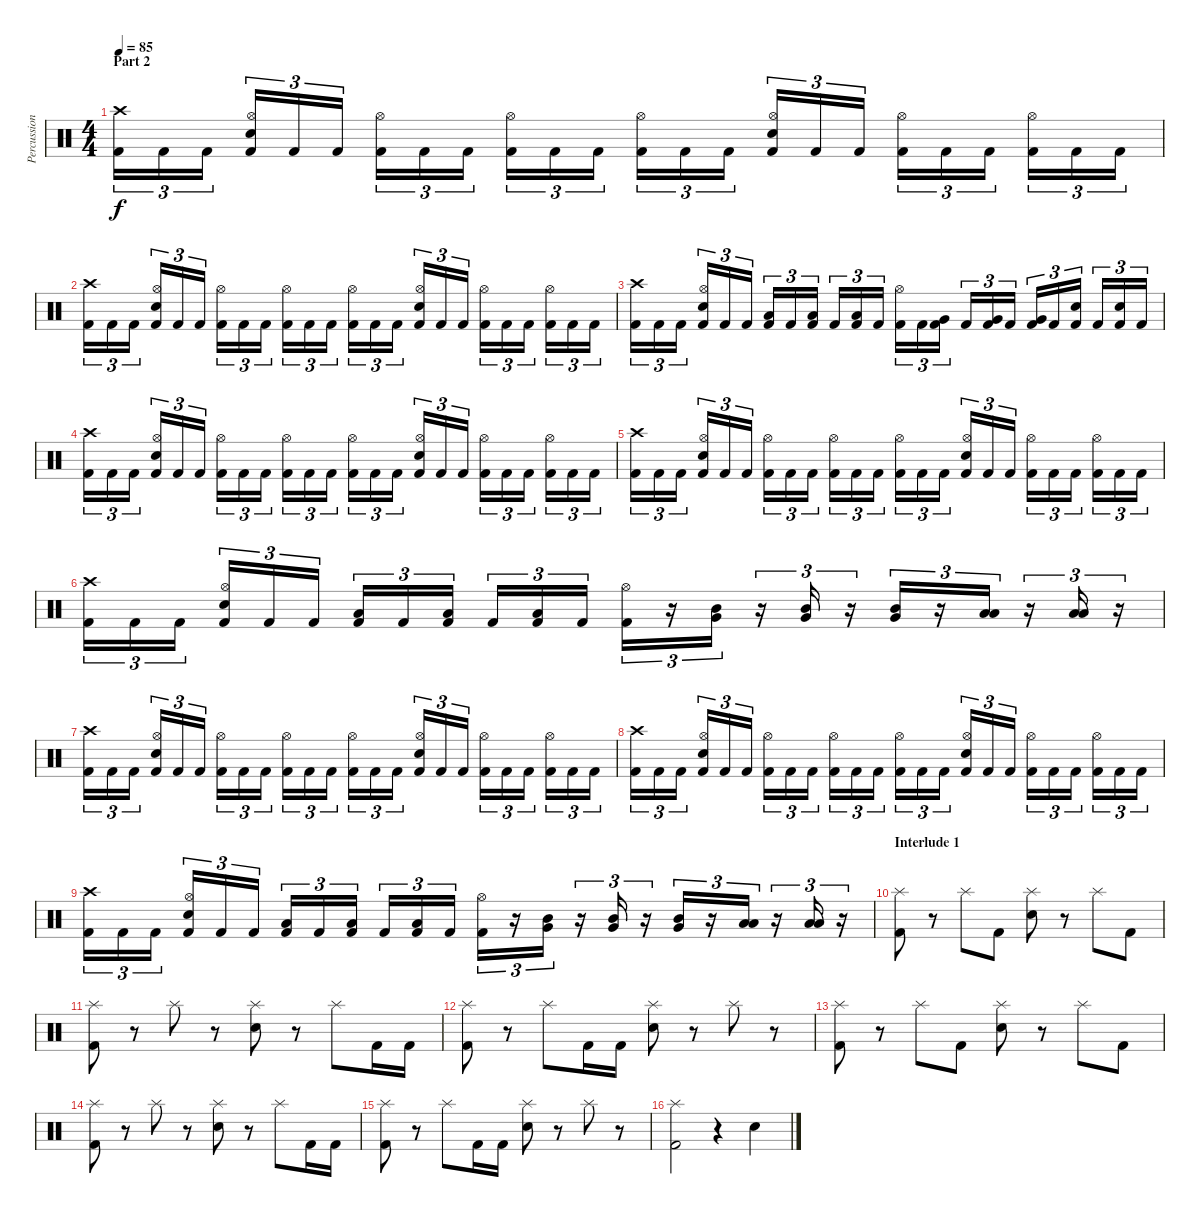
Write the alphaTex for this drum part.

\track ("Percussion" "Percussion") {instrument percussion}
\staff {score}
\articulation defaults
\ts (4 4)
\section ("" "Part 2")
\tempo 85
\clef neutral
\ks c
("Crash high (hit)" "Kick (hit) 2").16{tu (3 2) dy f} "Kick (hit) 2".16{tu (3 2)} "Kick (hit) 2".16{tu (3 2)} ("Hi-Hat (open)" "Electric Snare (hit)" "Kick (hit) 2").16{tu (3 2)} "Kick (hit) 2".16{tu (3 2)} "Kick (hit) 2".16{tu (3 2)} ("Hi-Hat (open)" "Kick (hit) 2").16{tu (3 2)} "Kick (hit) 2".16{tu (3 2)} "Kick (hit) 2".16{tu (3 2)} ("Hi-Hat (open)" "Kick (hit) 2").16{tu (3 2)} "Kick (hit) 2".16{tu (3 2)} "Kick (hit) 2".16{tu (3 2)} ("Hi-Hat (open)" "Kick (hit) 2").16{tu (3 2)} "Kick (hit) 2".16{tu (3 2)} "Kick (hit) 2".16{tu (3 2)} ("Hi-Hat (open)" "Electric Snare (hit)" "Kick (hit) 2").16{tu (3 2)} "Kick (hit) 2".16{tu (3 2)} "Kick (hit) 2".16{tu (3 2)} ("Hi-Hat (open)" "Kick (hit) 2").16{tu (3 2)} "Kick (hit) 2".16{tu (3 2)} "Kick (hit) 2".16{tu (3 2)} ("Hi-Hat (open)" "Kick (hit) 2").16{tu (3 2)} "Kick (hit) 2".16{tu (3 2)} "Kick (hit) 2".16{tu (3 2)} |
("Crash high (hit)" "Kick (hit) 2").16{tu (3 2)} "Kick (hit) 2".16{tu (3 2)} "Kick (hit) 2".16{tu (3 2)} ("Hi-Hat (open)" "Electric Snare (hit)" "Kick (hit) 2").16{tu (3 2)} "Kick (hit) 2".16{tu (3 2)} "Kick (hit) 2".16{tu (3 2)} ("Hi-Hat (open)" "Kick (hit) 2").16{tu (3 2)} "Kick (hit) 2".16{tu (3 2)} "Kick (hit) 2".16{tu (3 2)} ("Hi-Hat (open)" "Kick (hit) 2").16{tu (3 2)} "Kick (hit) 2".16{tu (3 2)} "Kick (hit) 2".16{tu (3 2)} ("Hi-Hat (open)" "Kick (hit) 2").16{tu (3 2)} "Kick (hit) 2".16{tu (3 2)} "Kick (hit) 2".16{tu (3 2)} ("Hi-Hat (open)" "Electric Snare (hit)" "Kick (hit) 2").16{tu (3 2)} "Kick (hit) 2".16{tu (3 2)} "Kick (hit) 2".16{tu (3 2)} ("Hi-Hat (open)" "Kick (hit) 2").16{tu (3 2)} "Kick (hit) 2".16{tu (3 2)} "Kick (hit) 2".16{tu (3 2)} ("Hi-Hat (open)" "Kick (hit) 2").16{tu (3 2)} "Kick (hit) 2".16{tu (3 2)} "Kick (hit) 2".16{tu (3 2)} |
("Crash high (hit)" "Kick (hit) 2").16{tu (3 2)} "Kick (hit) 2".16{tu (3 2)} "Kick (hit) 2".16{tu (3 2)} ("Hi-Hat (open)" "Electric Snare (hit)" "Kick (hit) 2").16{tu (3 2)} "Kick (hit) 2".16{tu (3 2)} "Kick (hit) 2".16{tu (3 2)} ("Low Tom (hit)" "Kick (hit) 2").16{tu (3 2)} "Kick (hit) 2".16{tu (3 2)} ("Low Tom (hit)" "Kick (hit) 2").16{tu (3 2)} "Kick (hit) 2".16{tu (3 2)} ("Low Tom (hit)" "Kick (hit) 2").16{tu (3 2)} "Kick (hit) 2".16{tu (3 2)} ("Hi-Hat (open)" "Kick (hit) 2").16{tu (3 2)} "Kick (hit) 2".16{tu (3 2)} ("Very Low Tom (hit)" "Kick (hit) 2").16{tu (3 2)} "Kick (hit) 2".16{tu (3 2)} ("Very Low Tom (hit)" "Kick (hit) 2").16{tu (3 2)} "Kick (hit) 2".16{tu (3 2)} ("Very Low Tom (hit)" "Kick (hit) 2").16{tu (3 2)} "Kick (hit) 2".16{tu (3 2)} ("Electric Snare (hit)" "Kick (hit) 2").16{tu (3 2)} "Kick (hit) 2".16{tu (3 2)} ("Electric Snare (hit)" "Kick (hit) 2").16{tu (3 2)} "Kick (hit) 2".16{tu (3 2)} |
("Crash high (hit)" "Kick (hit) 2").16{tu (3 2)} "Kick (hit) 2".16{tu (3 2)} "Kick (hit) 2".16{tu (3 2)} ("Hi-Hat (open)" "Electric Snare (hit)" "Kick (hit) 2").16{tu (3 2)} "Kick (hit) 2".16{tu (3 2)} "Kick (hit) 2".16{tu (3 2)} ("Hi-Hat (open)" "Kick (hit) 2").16{tu (3 2)} "Kick (hit) 2".16{tu (3 2)} "Kick (hit) 2".16{tu (3 2)} ("Hi-Hat (open)" "Kick (hit) 2").16{tu (3 2)} "Kick (hit) 2".16{tu (3 2)} "Kick (hit) 2".16{tu (3 2)} ("Hi-Hat (open)" "Kick (hit) 2").16{tu (3 2)} "Kick (hit) 2".16{tu (3 2)} "Kick (hit) 2".16{tu (3 2)} ("Hi-Hat (open)" "Electric Snare (hit)" "Kick (hit) 2").16{tu (3 2)} "Kick (hit) 2".16{tu (3 2)} "Kick (hit) 2".16{tu (3 2)} ("Hi-Hat (open)" "Kick (hit) 2").16{tu (3 2)} "Kick (hit) 2".16{tu (3 2)} "Kick (hit) 2".16{tu (3 2)} ("Hi-Hat (open)" "Kick (hit) 2").16{tu (3 2)} "Kick (hit) 2".16{tu (3 2)} "Kick (hit) 2".16{tu (3 2)} |
("Crash high (hit)" "Kick (hit) 2").16{tu (3 2)} "Kick (hit) 2".16{tu (3 2)} "Kick (hit) 2".16{tu (3 2)} ("Hi-Hat (open)" "Electric Snare (hit)" "Kick (hit) 2").16{tu (3 2)} "Kick (hit) 2".16{tu (3 2)} "Kick (hit) 2".16{tu (3 2)} ("Hi-Hat (open)" "Kick (hit) 2").16{tu (3 2)} "Kick (hit) 2".16{tu (3 2)} "Kick (hit) 2".16{tu (3 2)} ("Hi-Hat (open)" "Kick (hit) 2").16{tu (3 2)} "Kick (hit) 2".16{tu (3 2)} "Kick (hit) 2".16{tu (3 2)} ("Hi-Hat (open)" "Kick (hit) 2").16{tu (3 2)} "Kick (hit) 2".16{tu (3 2)} "Kick (hit) 2".16{tu (3 2)} ("Hi-Hat (open)" "Electric Snare (hit)" "Kick (hit) 2").16{tu (3 2)} "Kick (hit) 2".16{tu (3 2)} "Kick (hit) 2".16{tu (3 2)} ("Hi-Hat (open)" "Kick (hit) 2").16{tu (3 2)} "Kick (hit) 2".16{tu (3 2)} "Kick (hit) 2".16{tu (3 2)} ("Hi-Hat (open)" "Kick (hit) 2").16{tu (3 2)} "Kick (hit) 2".16{tu (3 2)} "Kick (hit) 2".16{tu (3 2)} |
("Crash high (hit)" "Kick (hit) 2").16{tu (3 2)} "Kick (hit) 2".16{tu (3 2)} "Kick (hit) 2".16{tu (3 2)} ("Hi-Hat (open)" "Electric Snare (hit)" "Kick (hit) 2").16{tu (3 2)} "Kick (hit) 2".16{tu (3 2)} "Kick (hit) 2".16{tu (3 2)} ("Low Tom (hit)" "Kick (hit) 2").16{tu (3 2)} "Kick (hit) 2".16{tu (3 2)} ("Low Tom (hit)" "Kick (hit) 2").16{tu (3 2)} "Kick (hit) 2".16{tu (3 2)} ("Low Tom (hit)" "Kick (hit) 2").16{tu (3 2)} "Kick (hit) 2".16{tu (3 2)} ("Hi-Hat (open)" "Kick (hit) 2").16{tu (3 2)} r.16{tu (3 2)} ("Very Low Tom (hit)" "Mid Tom (hit)").16{tu (3 2)} r.16{tu (3 2)} ("Very Low Tom (hit)" "Mid Tom (hit)").16{tu (3 2)} r.16{tu (3 2)} ("Very Low Tom (hit)" "Mid Tom (hit)").16{tu (3 2)} r.16{tu (3 2)} ("Low Floor Tom (hit)" "Low Tom (hit)").16{tu (3 2)} r.16{tu (3 2)} ("Low Floor Tom (hit)" "Low Tom (hit)").16{tu (3 2)} r.16{tu (3 2)} |
("Crash high (hit)" "Kick (hit) 2").16{tu (3 2)} "Kick (hit) 2".16{tu (3 2)} "Kick (hit) 2".16{tu (3 2)} ("Hi-Hat (open)" "Electric Snare (hit)" "Kick (hit) 2").16{tu (3 2)} "Kick (hit) 2".16{tu (3 2)} "Kick (hit) 2".16{tu (3 2)} ("Hi-Hat (open)" "Kick (hit) 2").16{tu (3 2)} "Kick (hit) 2".16{tu (3 2)} "Kick (hit) 2".16{tu (3 2)} ("Hi-Hat (open)" "Kick (hit) 2").16{tu (3 2)} "Kick (hit) 2".16{tu (3 2)} "Kick (hit) 2".16{tu (3 2)} ("Hi-Hat (open)" "Kick (hit) 2").16{tu (3 2)} "Kick (hit) 2".16{tu (3 2)} "Kick (hit) 2".16{tu (3 2)} ("Hi-Hat (open)" "Electric Snare (hit)" "Kick (hit) 2").16{tu (3 2)} "Kick (hit) 2".16{tu (3 2)} "Kick (hit) 2".16{tu (3 2)} ("Hi-Hat (open)" "Kick (hit) 2").16{tu (3 2)} "Kick (hit) 2".16{tu (3 2)} "Kick (hit) 2".16{tu (3 2)} ("Hi-Hat (open)" "Kick (hit) 2").16{tu (3 2)} "Kick (hit) 2".16{tu (3 2)} "Kick (hit) 2".16{tu (3 2)} |
("Crash high (hit)" "Kick (hit) 2").16{tu (3 2)} "Kick (hit) 2".16{tu (3 2)} "Kick (hit) 2".16{tu (3 2)} ("Hi-Hat (open)" "Electric Snare (hit)" "Kick (hit) 2").16{tu (3 2)} "Kick (hit) 2".16{tu (3 2)} "Kick (hit) 2".16{tu (3 2)} ("Hi-Hat (open)" "Kick (hit) 2").16{tu (3 2)} "Kick (hit) 2".16{tu (3 2)} "Kick (hit) 2".16{tu (3 2)} ("Hi-Hat (open)" "Kick (hit) 2").16{tu (3 2)} "Kick (hit) 2".16{tu (3 2)} "Kick (hit) 2".16{tu (3 2)} ("Hi-Hat (open)" "Kick (hit) 2").16{tu (3 2)} "Kick (hit) 2".16{tu (3 2)} "Kick (hit) 2".16{tu (3 2)} ("Hi-Hat (open)" "Electric Snare (hit)" "Kick (hit) 2").16{tu (3 2)} "Kick (hit) 2".16{tu (3 2)} "Kick (hit) 2".16{tu (3 2)} ("Hi-Hat (open)" "Kick (hit) 2").16{tu (3 2)} "Kick (hit) 2".16{tu (3 2)} "Kick (hit) 2".16{tu (3 2)} ("Hi-Hat (open)" "Kick (hit) 2").16{tu (3 2)} "Kick (hit) 2".16{tu (3 2)} "Kick (hit) 2".16{tu (3 2)} |
("Crash high (hit)" "Kick (hit) 2").16{tu (3 2)} "Kick (hit) 2".16{tu (3 2)} "Kick (hit) 2".16{tu (3 2)} ("Hi-Hat (open)" "Electric Snare (hit)" "Kick (hit) 2").16{tu (3 2)} "Kick (hit) 2".16{tu (3 2)} "Kick (hit) 2".16{tu (3 2)} ("Low Tom (hit)" "Kick (hit) 2").16{tu (3 2)} "Kick (hit) 2".16{tu (3 2)} ("Low Tom (hit)" "Kick (hit) 2").16{tu (3 2)} "Kick (hit) 2".16{tu (3 2)} ("Low Tom (hit)" "Kick (hit) 2").16{tu (3 2)} "Kick (hit) 2".16{tu (3 2)} ("Hi-Hat (open)" "Kick (hit) 2").16{tu (3 2)} r.16{tu (3 2)} ("Very Low Tom (hit)" "Mid Tom (hit)").16{tu (3 2)} r.16{tu (3 2)} ("Very Low Tom (hit)" "Mid Tom (hit)").16{tu (3 2)} r.16{tu (3 2)} ("Very Low Tom (hit)" "Mid Tom (hit)").16{tu (3 2)} r.16{tu (3 2)} ("Low Floor Tom (hit)" "Low Tom (hit)").16{tu (3 2)} r.16{tu (3 2)} ("Low Floor Tom (hit)" "Low Tom (hit)").16{tu (3 2)} r.16{tu (3 2)} |
\section ("" "Interlude 1")
("Splash (hit)" "Kick (hit) 2").8 r.8 "Splash (hit)".8 "Kick (hit) 2".8 ("Splash (hit)" "Electric Snare (hit)").8 r.8 "Splash (hit)".8 "Kick (hit) 2".8 |
("Splash (hit)" "Kick (hit) 2").8 r.8 "Splash (hit)".8 r.8 ("Splash (hit)" "Electric Snare (hit)").8 r.8 "Splash (hit)".8 "Kick (hit) 2".16 "Kick (hit) 2".16 |
("Splash (hit)" "Kick (hit) 2").8 r.8 "Splash (hit)".8 "Kick (hit) 2".16 "Kick (hit) 2".16 ("Splash (hit)" "Electric Snare (hit)").8 r.8 "Splash (hit)".8 r.8 |
("Splash (hit)" "Kick (hit) 2").8 r.8 "Splash (hit)".8 "Kick (hit) 2".8 ("Splash (hit)" "Electric Snare (hit)").8 r.8 "Splash (hit)".8 "Kick (hit) 2".8 |
("Splash (hit)" "Kick (hit) 2").8 r.8 "Splash (hit)".8 r.8 ("Splash (hit)" "Electric Snare (hit)").8 r.8 "Splash (hit)".8 "Kick (hit) 2".16 "Kick (hit) 2".16 |
("Splash (hit)" "Kick (hit) 2").8 r.8 "Splash (hit)".8 "Kick (hit) 2".16 "Kick (hit) 2".16 ("Splash (hit)" "Electric Snare (hit)").8 r.8 "Splash (hit)".8 r.8 |
("Splash (hit)" "Kick (hit) 2").2 r.4 "Electric Snare (hit)".4
